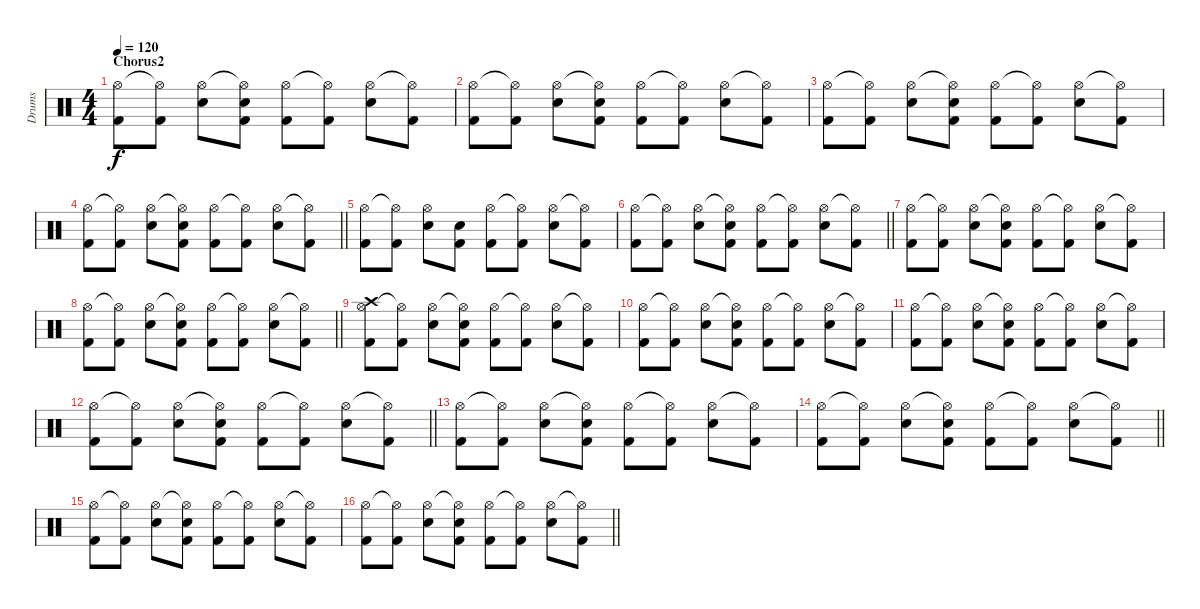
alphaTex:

\track ("Drums" "Drums") {instrument percussion}
\staff {score}
\articulation defaults
\ts (4 4)
\section ("" "Chorus2")
\tempo 120
\clef neutral
\ks c
("Hi-Hat (open)" "Kick (hit) 2").8{dy f} ("Hi-Hat (open)"{t} "Kick (hit) 2").8 ("Hi-Hat (open)" "Electric Snare (hit)").8 ("Hi-Hat (open)"{t} "Electric Snare (hit)" "Kick (hit) 2").8 ("Hi-Hat (open)" "Kick (hit) 2").8 ("Hi-Hat (open)"{t} "Kick (hit) 2").8 ("Hi-Hat (open)" "Electric Snare (hit)").8 ("Hi-Hat (open)"{t} "Kick (hit) 2").8 |
("Hi-Hat (open)" "Kick (hit) 2").8 ("Hi-Hat (open)"{t} "Kick (hit) 2").8 ("Hi-Hat (open)" "Electric Snare (hit)").8 ("Hi-Hat (open)"{t} "Electric Snare (hit)" "Kick (hit) 2").8 ("Hi-Hat (open)" "Kick (hit) 2").8 ("Hi-Hat (open)"{t} "Kick (hit) 2").8 ("Hi-Hat (open)" "Electric Snare (hit)").8 ("Hi-Hat (open)"{t} "Kick (hit) 2").8 |
("Hi-Hat (open)" "Kick (hit) 2").8 ("Hi-Hat (open)"{t} "Kick (hit) 2").8 ("Hi-Hat (open)" "Electric Snare (hit)").8 ("Hi-Hat (open)"{t} "Electric Snare (hit)" "Kick (hit) 2").8 ("Hi-Hat (open)" "Kick (hit) 2").8 ("Hi-Hat (open)"{t} "Kick (hit) 2").8 ("Hi-Hat (open)" "Electric Snare (hit)").8 ("Hi-Hat (open)"{t} "Kick (hit) 2").8 |
\barLineRight lightlight
("Hi-Hat (open)" "Kick (hit) 2").8 ("Hi-Hat (open)"{t} "Kick (hit) 2").8 ("Hi-Hat (open)" "Electric Snare (hit)").8 ("Hi-Hat (open)"{t} "Electric Snare (hit)" "Kick (hit) 2").8 ("Hi-Hat (open)" "Kick (hit) 2").8 ("Hi-Hat (open)"{t} "Kick (hit) 2").8 ("Hi-Hat (open)" "Electric Snare (hit)").8 ("Hi-Hat (open)"{t} "Kick (hit) 2").8 |
("Hi-Hat (open)" "Kick (hit) 2").8 ("Hi-Hat (open)"{t} "Kick (hit) 2").8 ("Hi-Hat (open)" "Electric Snare (hit)").8 ("Electric Snare (hit)" "Kick (hit) 2").8 ("Hi-Hat (open)" "Kick (hit) 2").8 ("Hi-Hat (open)"{t} "Kick (hit) 2").8 ("Hi-Hat (open)" "Electric Snare (hit)").8 ("Hi-Hat (open)"{t} "Kick (hit) 2").8 |
\barLineRight lightlight
("Hi-Hat (open)" "Kick (hit) 2").8 ("Hi-Hat (open)"{t} "Kick (hit) 2").8 ("Hi-Hat (open)" "Electric Snare (hit)").8 ("Hi-Hat (open)"{t} "Electric Snare (hit)" "Kick (hit) 2").8 ("Hi-Hat (open)" "Kick (hit) 2").8 ("Hi-Hat (open)"{t} "Kick (hit) 2").8 ("Hi-Hat (open)" "Electric Snare (hit)").8 ("Hi-Hat (open)"{t} "Kick (hit) 2").8 |
("Hi-Hat (open)" "Kick (hit) 2").8 ("Hi-Hat (open)"{t} "Kick (hit) 2").8 ("Hi-Hat (open)" "Electric Snare (hit)").8 ("Hi-Hat (open)"{t} "Electric Snare (hit)" "Kick (hit) 2").8 ("Hi-Hat (open)" "Kick (hit) 2").8 ("Hi-Hat (open)"{t} "Kick (hit) 2").8 ("Hi-Hat (open)" "Electric Snare (hit)").8 ("Hi-Hat (open)"{t} "Kick (hit) 2").8 |
\barLineRight lightlight
("Hi-Hat (open)" "Kick (hit) 2").8 ("Hi-Hat (open)"{t} "Kick (hit) 2").8 ("Hi-Hat (open)" "Electric Snare (hit)").8 ("Hi-Hat (open)"{t} "Electric Snare (hit)" "Kick (hit) 2").8 ("Hi-Hat (open)" "Kick (hit) 2").8 ("Hi-Hat (open)"{t} "Kick (hit) 2").8 ("Hi-Hat (open)" "Electric Snare (hit)").8 ("Hi-Hat (open)"{t} "Kick (hit) 2").8 |
("Hi-Hat (open)" "Crash high (hit)" "Kick (hit) 2").8 ("Hi-Hat (open)"{t} "Kick (hit) 2").8 ("Hi-Hat (open)" "Electric Snare (hit)").8 ("Hi-Hat (open)"{t} "Electric Snare (hit)" "Kick (hit) 2").8 ("Hi-Hat (open)" "Kick (hit) 2").8 ("Hi-Hat (open)"{t} "Kick (hit) 2").8 ("Hi-Hat (open)" "Electric Snare (hit)").8 ("Hi-Hat (open)"{t} "Kick (hit) 2").8 |
("Hi-Hat (open)" "Kick (hit) 2").8 ("Hi-Hat (open)"{t} "Kick (hit) 2").8 ("Hi-Hat (open)" "Electric Snare (hit)").8 ("Hi-Hat (open)"{t} "Electric Snare (hit)" "Kick (hit) 2").8 ("Hi-Hat (open)" "Kick (hit) 2").8 ("Hi-Hat (open)"{t} "Kick (hit) 2").8 ("Hi-Hat (open)" "Electric Snare (hit)").8 ("Hi-Hat (open)"{t} "Kick (hit) 2").8 |
("Hi-Hat (open)" "Kick (hit) 2").8 ("Hi-Hat (open)"{t} "Kick (hit) 2").8 ("Hi-Hat (open)" "Electric Snare (hit)").8 ("Hi-Hat (open)"{t} "Electric Snare (hit)" "Kick (hit) 2").8 ("Hi-Hat (open)" "Kick (hit) 2").8 ("Hi-Hat (open)"{t} "Kick (hit) 2").8 ("Hi-Hat (open)" "Electric Snare (hit)").8 ("Hi-Hat (open)"{t} "Kick (hit) 2").8 |
\barLineRight lightlight
("Hi-Hat (open)" "Kick (hit) 2").8 ("Hi-Hat (open)"{t} "Kick (hit) 2").8 ("Hi-Hat (open)" "Electric Snare (hit)").8 ("Hi-Hat (open)"{t} "Electric Snare (hit)" "Kick (hit) 2").8 ("Hi-Hat (open)" "Kick (hit) 2").8 ("Hi-Hat (open)"{t} "Kick (hit) 2").8 ("Hi-Hat (open)" "Electric Snare (hit)").8 ("Hi-Hat (open)"{t} "Kick (hit) 2").8 |
("Hi-Hat (open)" "Kick (hit) 2").8 ("Hi-Hat (open)"{t} "Kick (hit) 2").8 ("Hi-Hat (open)" "Electric Snare (hit)").8 ("Hi-Hat (open)"{t} "Electric Snare (hit)" "Kick (hit) 2").8 ("Hi-Hat (open)" "Kick (hit) 2").8 ("Hi-Hat (open)"{t} "Kick (hit) 2").8 ("Hi-Hat (open)" "Electric Snare (hit)").8 ("Hi-Hat (open)"{t} "Kick (hit) 2").8 |
\barLineRight lightlight
("Hi-Hat (open)" "Kick (hit) 2").8 ("Hi-Hat (open)"{t} "Kick (hit) 2").8 ("Hi-Hat (open)" "Electric Snare (hit)").8 ("Hi-Hat (open)"{t} "Electric Snare (hit)" "Kick (hit) 2").8 ("Hi-Hat (open)" "Kick (hit) 2").8 ("Hi-Hat (open)"{t} "Kick (hit) 2").8 ("Hi-Hat (open)" "Electric Snare (hit)").8 ("Hi-Hat (open)"{t} "Kick (hit) 2").8 |
("Hi-Hat (open)" "Kick (hit) 2").8 ("Hi-Hat (open)"{t} "Kick (hit) 2").8 ("Hi-Hat (open)" "Electric Snare (hit)").8 ("Hi-Hat (open)"{t} "Electric Snare (hit)" "Kick (hit) 2").8 ("Hi-Hat (open)" "Kick (hit) 2").8 ("Hi-Hat (open)"{t} "Kick (hit) 2").8 ("Hi-Hat (open)" "Electric Snare (hit)").8 ("Hi-Hat (open)"{t} "Kick (hit) 2").8 |
\barLineRight lightlight
("Hi-Hat (open)" "Kick (hit) 2").8 ("Hi-Hat (open)"{t} "Kick (hit) 2").8 ("Hi-Hat (open)" "Electric Snare (hit)").8 ("Hi-Hat (open)"{t} "Electric Snare (hit)" "Kick (hit) 2").8 ("Hi-Hat (open)" "Kick (hit) 2").8 ("Hi-Hat (open)"{t} "Kick (hit) 2").8 ("Hi-Hat (open)" "Electric Snare (hit)").8 ("Hi-Hat (open)"{t} "Kick (hit) 2").8
